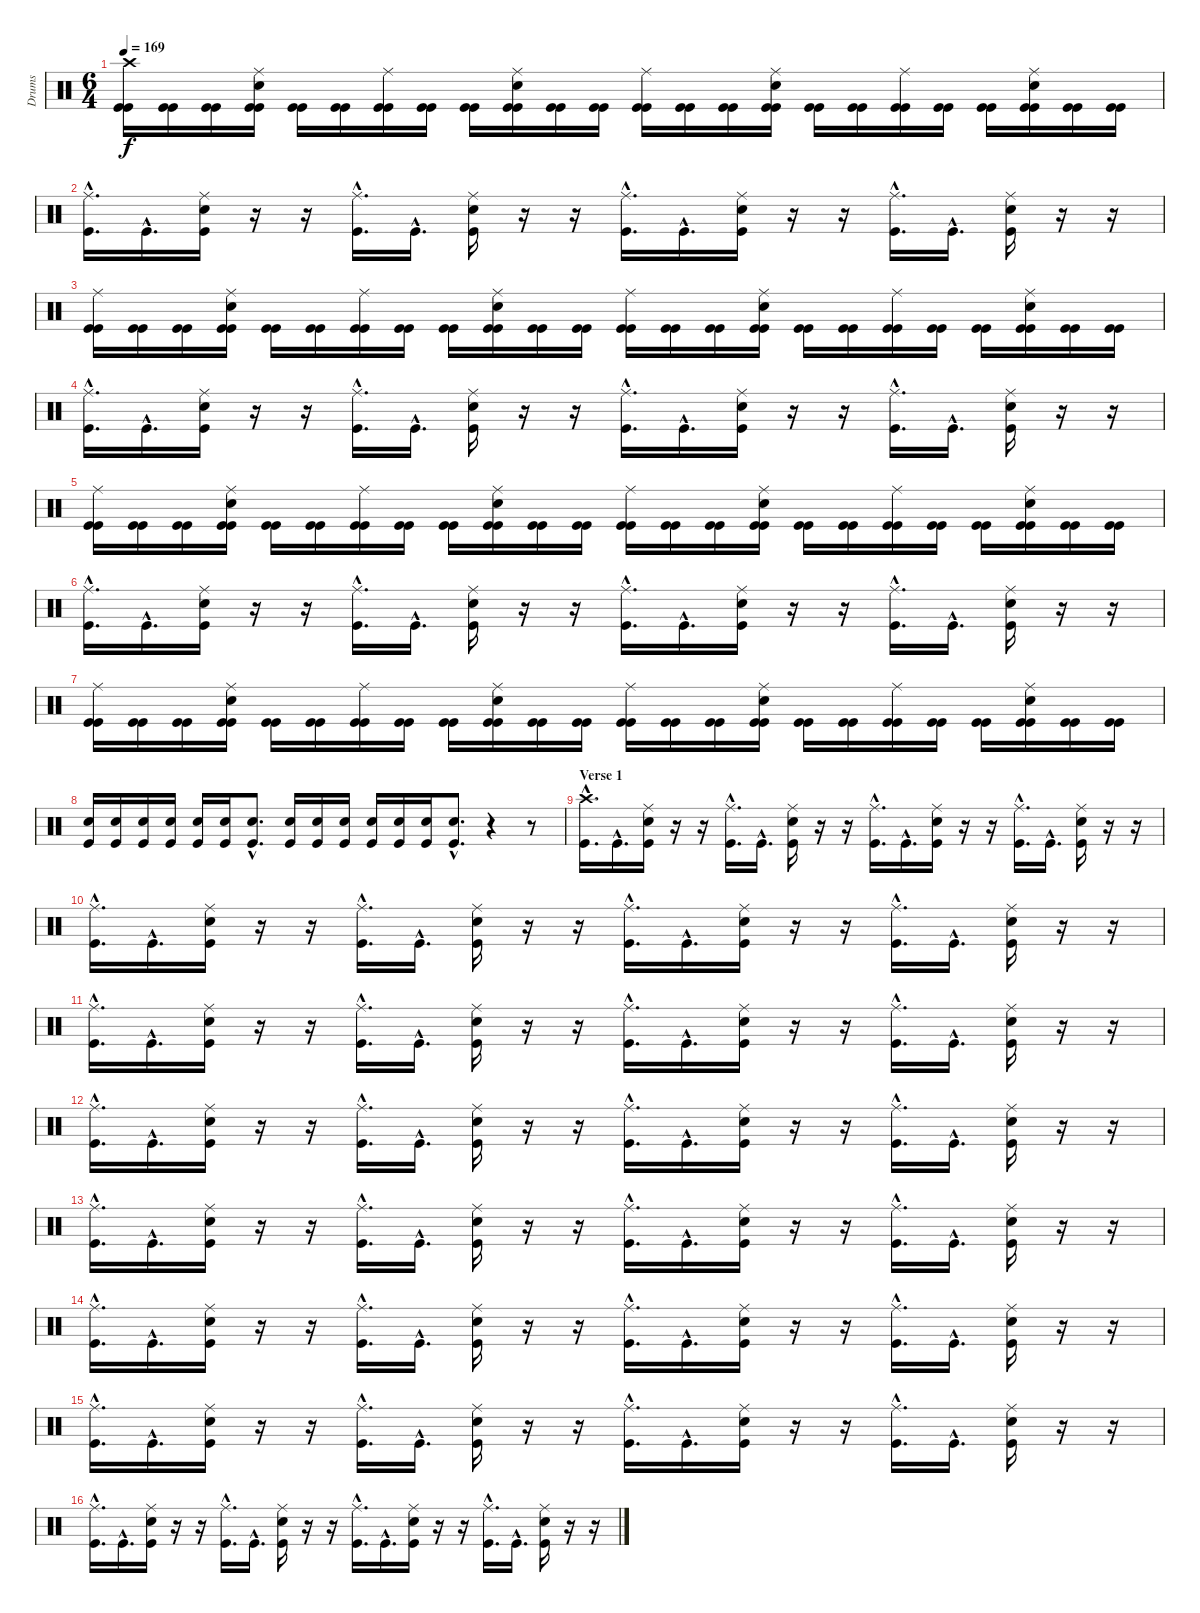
\track ("Drums" "Drums") {instrument percussion}
\staff {score}
\articulation defaults
\ts (6 4)
\tempo 169
\clef neutral
\ks c
("Kick (hit)" "Crash high (hit)" "Kick (hit)").16{dy f} ("Kick (hit)" "Kick (hit)").16 ("Kick (hit)" "Kick (hit)").16 ("Kick (hit)" "Electric Snare (hit)" "Ride (middle)" "Kick (hit)").16 ("Kick (hit)" "Kick (hit)").16 ("Kick (hit)" "Kick (hit)").16 ("Kick (hit)" "Ride (middle)" "Kick (hit)").16 ("Kick (hit)" "Kick (hit)").16 ("Kick (hit)" "Kick (hit)").16 ("Kick (hit)" "Electric Snare (hit)" "Ride (middle)" "Kick (hit)").16 ("Kick (hit)" "Kick (hit)").16 ("Kick (hit)" "Kick (hit)").16 ("Kick (hit)" "Ride (middle)" "Kick (hit)").16 ("Kick (hit)" "Kick (hit)").16 ("Kick (hit)" "Kick (hit)").16 ("Kick (hit)" "Electric Snare (hit)" "Ride (middle)" "Kick (hit)").16 ("Kick (hit)" "Kick (hit)").16 ("Kick (hit)" "Kick (hit)").16 ("Kick (hit)" "Ride (middle)" "Kick (hit)").16 ("Kick (hit)" "Kick (hit)").16 ("Kick (hit)" "Kick (hit)").16 ("Kick (hit)" "Electric Snare (hit)" "Ride (middle)" "Kick (hit)").16 ("Kick (hit)" "Kick (hit)").16 ("Kick (hit)" "Kick (hit)").16 |
("Kick (hit)"{hac} "Ride (middle)"{hac}).16{d} "Kick (hit)"{hac}.16{d} ("Kick (hit)" "Electric Snare (hit)" "Ride (middle)").16 r.16 r.16 ("Kick (hit)"{hac} "Ride (middle)"{hac}).16{d} "Kick (hit)"{hac}.16{d} ("Kick (hit)" "Electric Snare (hit)" "Ride (middle)").16 r.16 r.16 ("Kick (hit)"{hac} "Ride (middle)"{hac}).16{d} "Kick (hit)"{hac}.16{d} ("Kick (hit)" "Electric Snare (hit)" "Ride (middle)").16 r.16 r.16 ("Kick (hit)"{hac} "Ride (middle)"{hac}).16{d} "Kick (hit)"{hac}.16{d} ("Kick (hit)" "Electric Snare (hit)" "Ride (middle)").16 r.16 r.16 |
("Kick (hit)" "Ride (middle)" "Kick (hit)").16 ("Kick (hit)" "Kick (hit)").16 ("Kick (hit)" "Kick (hit)").16 ("Kick (hit)" "Electric Snare (hit)" "Ride (middle)" "Kick (hit)").16 ("Kick (hit)" "Kick (hit)").16 ("Kick (hit)" "Kick (hit)").16 ("Kick (hit)" "Ride (middle)" "Kick (hit)").16 ("Kick (hit)" "Kick (hit)").16 ("Kick (hit)" "Kick (hit)").16 ("Kick (hit)" "Electric Snare (hit)" "Ride (middle)" "Kick (hit)").16 ("Kick (hit)" "Kick (hit)").16 ("Kick (hit)" "Kick (hit)").16 ("Kick (hit)" "Ride (middle)" "Kick (hit)").16 ("Kick (hit)" "Kick (hit)").16 ("Kick (hit)" "Kick (hit)").16 ("Kick (hit)" "Electric Snare (hit)" "Ride (middle)" "Kick (hit)").16 ("Kick (hit)" "Kick (hit)").16 ("Kick (hit)" "Kick (hit)").16 ("Kick (hit)" "Ride (middle)" "Kick (hit)").16 ("Kick (hit)" "Kick (hit)").16 ("Kick (hit)" "Kick (hit)").16 ("Kick (hit)" "Electric Snare (hit)" "Ride (middle)" "Kick (hit)").16 ("Kick (hit)" "Kick (hit)").16 ("Kick (hit)" "Kick (hit)").16 |
("Kick (hit)"{hac} "Ride (middle)"{hac}).16{d} "Kick (hit)"{hac}.16{d} ("Kick (hit)" "Electric Snare (hit)" "Ride (middle)").16 r.16 r.16 ("Kick (hit)"{hac} "Ride (middle)"{hac}).16{d} "Kick (hit)"{hac}.16{d} ("Kick (hit)" "Electric Snare (hit)" "Ride (middle)").16 r.16 r.16 ("Kick (hit)"{hac} "Ride (middle)"{hac}).16{d} "Kick (hit)"{hac}.16{d} ("Kick (hit)" "Electric Snare (hit)" "Ride (middle)").16 r.16 r.16 ("Kick (hit)"{hac} "Ride (middle)"{hac}).16{d} "Kick (hit)"{hac}.16{d} ("Kick (hit)" "Electric Snare (hit)" "Ride (middle)").16 r.16 r.16 |
("Kick (hit)" "Ride (middle)" "Kick (hit)").16 ("Kick (hit)" "Kick (hit)").16 ("Kick (hit)" "Kick (hit)").16 ("Kick (hit)" "Electric Snare (hit)" "Ride (middle)" "Kick (hit)").16 ("Kick (hit)" "Kick (hit)").16 ("Kick (hit)" "Kick (hit)").16 ("Kick (hit)" "Ride (middle)" "Kick (hit)").16 ("Kick (hit)" "Kick (hit)").16 ("Kick (hit)" "Kick (hit)").16 ("Kick (hit)" "Electric Snare (hit)" "Ride (middle)" "Kick (hit)").16 ("Kick (hit)" "Kick (hit)").16 ("Kick (hit)" "Kick (hit)").16 ("Kick (hit)" "Ride (middle)" "Kick (hit)").16 ("Kick (hit)" "Kick (hit)").16 ("Kick (hit)" "Kick (hit)").16 ("Kick (hit)" "Electric Snare (hit)" "Ride (middle)" "Kick (hit)").16 ("Kick (hit)" "Kick (hit)").16 ("Kick (hit)" "Kick (hit)").16 ("Kick (hit)" "Ride (middle)" "Kick (hit)").16 ("Kick (hit)" "Kick (hit)").16 ("Kick (hit)" "Kick (hit)").16 ("Kick (hit)" "Electric Snare (hit)" "Ride (middle)" "Kick (hit)").16 ("Kick (hit)" "Kick (hit)").16 ("Kick (hit)" "Kick (hit)").16 |
("Kick (hit)"{hac} "Ride (middle)"{hac}).16{d} "Kick (hit)"{hac}.16{d} ("Kick (hit)" "Electric Snare (hit)" "Ride (middle)").16 r.16 r.16 ("Kick (hit)"{hac} "Ride (middle)"{hac}).16{d} "Kick (hit)"{hac}.16{d} ("Kick (hit)" "Electric Snare (hit)" "Ride (middle)").16 r.16 r.16 ("Kick (hit)"{hac} "Ride (middle)"{hac}).16{d} "Kick (hit)"{hac}.16{d} ("Kick (hit)" "Electric Snare (hit)" "Ride (middle)").16 r.16 r.16 ("Kick (hit)"{hac} "Ride (middle)"{hac}).16{d} "Kick (hit)"{hac}.16{d} ("Kick (hit)" "Electric Snare (hit)" "Ride (middle)").16 r.16 r.16 |
("Kick (hit)" "Ride (middle)" "Kick (hit)").16 ("Kick (hit)" "Kick (hit)").16 ("Kick (hit)" "Kick (hit)").16 ("Kick (hit)" "Electric Snare (hit)" "Ride (middle)" "Kick (hit)").16 ("Kick (hit)" "Kick (hit)").16 ("Kick (hit)" "Kick (hit)").16 ("Kick (hit)" "Ride (middle)" "Kick (hit)").16 ("Kick (hit)" "Kick (hit)").16 ("Kick (hit)" "Kick (hit)").16 ("Kick (hit)" "Electric Snare (hit)" "Ride (middle)" "Kick (hit)").16 ("Kick (hit)" "Kick (hit)").16 ("Kick (hit)" "Kick (hit)").16 ("Kick (hit)" "Ride (middle)" "Kick (hit)").16 ("Kick (hit)" "Kick (hit)").16 ("Kick (hit)" "Kick (hit)").16 ("Kick (hit)" "Electric Snare (hit)" "Ride (middle)" "Kick (hit)").16 ("Kick (hit)" "Kick (hit)").16 ("Kick (hit)" "Kick (hit)").16 ("Kick (hit)" "Ride (middle)" "Kick (hit)").16 ("Kick (hit)" "Kick (hit)").16 ("Kick (hit)" "Kick (hit)").16 ("Kick (hit)" "Electric Snare (hit)" "Ride (middle)" "Kick (hit)").16 ("Kick (hit)" "Kick (hit)").16 ("Kick (hit)" "Kick (hit)").16 |
("Kick (hit)" "Electric Snare (hit)").16 ("Kick (hit)" "Electric Snare (hit)").16 ("Kick (hit)" "Electric Snare (hit)").16 ("Kick (hit)" "Electric Snare (hit)").16 ("Kick (hit)" "Electric Snare (hit)").16 ("Kick (hit)" "Electric Snare (hit)").16 ("Kick (hit)"{hac} "Electric Snare (hit)"{hac}).8{d} ("Kick (hit)" "Electric Snare (hit)").16 ("Kick (hit)" "Electric Snare (hit)").16 ("Kick (hit)" "Electric Snare (hit)").16 ("Kick (hit)" "Electric Snare (hit)").16 ("Kick (hit)" "Electric Snare (hit)").16 ("Kick (hit)" "Electric Snare (hit)").16 ("Kick (hit)"{hac} "Electric Snare (hit)"{hac}).8{d} r.4 r.8 |
\section ("" "Verse 1")
("Kick (hit)"{hac} "Crash high (hit)"{hac}).16{d} "Kick (hit)"{hac}.16{d} ("Kick (hit)" "Electric Snare (hit)" "Ride (middle)").16 r.16 r.16 ("Kick (hit)"{hac} "Ride (middle)"{hac}).16{d} "Kick (hit)"{hac}.16{d} ("Kick (hit)" "Electric Snare (hit)" "Ride (middle)").16 r.16 r.16 ("Kick (hit)"{hac} "Ride (middle)"{hac}).16{d} "Kick (hit)"{hac}.16{d} ("Kick (hit)" "Electric Snare (hit)" "Ride (middle)").16 r.16 r.16 ("Kick (hit)"{hac} "Ride (middle)"{hac}).16{d} "Kick (hit)"{hac}.16{d} ("Kick (hit)" "Electric Snare (hit)" "Ride (middle)").16 r.16 r.16 |
("Kick (hit)"{hac} "Ride (middle)"{hac}).16{d} "Kick (hit)"{hac}.16{d} ("Kick (hit)" "Electric Snare (hit)" "Ride (middle)").16 r.16 r.16 ("Kick (hit)"{hac} "Ride (middle)"{hac}).16{d} "Kick (hit)"{hac}.16{d} ("Kick (hit)" "Electric Snare (hit)" "Ride (middle)").16 r.16 r.16 ("Kick (hit)"{hac} "Ride (middle)"{hac}).16{d} "Kick (hit)"{hac}.16{d} ("Kick (hit)" "Electric Snare (hit)" "Ride (middle)").16 r.16 r.16 ("Kick (hit)"{hac} "Ride (middle)"{hac}).16{d} "Kick (hit)"{hac}.16{d} ("Kick (hit)" "Electric Snare (hit)" "Ride (middle)").16 r.16 r.16 |
("Kick (hit)"{hac} "Ride (middle)"{hac}).16{d} "Kick (hit)"{hac}.16{d} ("Kick (hit)" "Electric Snare (hit)" "Ride (middle)").16 r.16 r.16 ("Kick (hit)"{hac} "Ride (middle)"{hac}).16{d} "Kick (hit)"{hac}.16{d} ("Kick (hit)" "Electric Snare (hit)" "Ride (middle)").16 r.16 r.16 ("Kick (hit)"{hac} "Ride (middle)"{hac}).16{d} "Kick (hit)"{hac}.16{d} ("Kick (hit)" "Electric Snare (hit)" "Ride (middle)").16 r.16 r.16 ("Kick (hit)"{hac} "Ride (middle)"{hac}).16{d} "Kick (hit)"{hac}.16{d} ("Kick (hit)" "Electric Snare (hit)" "Ride (middle)").16 r.16 r.16 |
("Kick (hit)"{hac} "Ride (middle)"{hac}).16{d} "Kick (hit)"{hac}.16{d} ("Kick (hit)" "Electric Snare (hit)" "Ride (middle)").16 r.16 r.16 ("Kick (hit)"{hac} "Ride (middle)"{hac}).16{d} "Kick (hit)"{hac}.16{d} ("Kick (hit)" "Electric Snare (hit)" "Ride (middle)").16 r.16 r.16 ("Kick (hit)"{hac} "Ride (middle)"{hac}).16{d} "Kick (hit)"{hac}.16{d} ("Kick (hit)" "Electric Snare (hit)" "Ride (middle)").16 r.16 r.16 ("Kick (hit)"{hac} "Ride (middle)"{hac}).16{d} "Kick (hit)"{hac}.16{d} ("Kick (hit)" "Electric Snare (hit)" "Ride (middle)").16 r.16 r.16 |
("Kick (hit)"{hac} "Ride (middle)"{hac}).16{d} "Kick (hit)"{hac}.16{d} ("Kick (hit)" "Electric Snare (hit)" "Ride (middle)").16 r.16 r.16 ("Kick (hit)"{hac} "Ride (middle)"{hac}).16{d} "Kick (hit)"{hac}.16{d} ("Kick (hit)" "Electric Snare (hit)" "Ride (middle)").16 r.16 r.16 ("Kick (hit)"{hac} "Ride (middle)"{hac}).16{d} "Kick (hit)"{hac}.16{d} ("Kick (hit)" "Electric Snare (hit)" "Ride (middle)").16 r.16 r.16 ("Kick (hit)"{hac} "Ride (middle)"{hac}).16{d} "Kick (hit)"{hac}.16{d} ("Kick (hit)" "Electric Snare (hit)" "Ride (middle)").16 r.16 r.16 |
("Kick (hit)"{hac} "Ride (middle)"{hac}).16{d} "Kick (hit)"{hac}.16{d} ("Kick (hit)" "Electric Snare (hit)" "Ride (middle)").16 r.16 r.16 ("Kick (hit)"{hac} "Ride (middle)"{hac}).16{d} "Kick (hit)"{hac}.16{d} ("Kick (hit)" "Electric Snare (hit)" "Ride (middle)").16 r.16 r.16 ("Kick (hit)"{hac} "Ride (middle)"{hac}).16{d} "Kick (hit)"{hac}.16{d} ("Kick (hit)" "Electric Snare (hit)" "Ride (middle)").16 r.16 r.16 ("Kick (hit)"{hac} "Ride (middle)"{hac}).16{d} "Kick (hit)"{hac}.16{d} ("Kick (hit)" "Electric Snare (hit)" "Ride (middle)").16 r.16 r.16 |
("Kick (hit)"{hac} "Ride (middle)"{hac}).16{d} "Kick (hit)"{hac}.16{d} ("Kick (hit)" "Electric Snare (hit)" "Ride (middle)").16 r.16 r.16 ("Kick (hit)"{hac} "Ride (middle)"{hac}).16{d} "Kick (hit)"{hac}.16{d} ("Kick (hit)" "Electric Snare (hit)" "Ride (middle)").16 r.16 r.16 ("Kick (hit)"{hac} "Ride (middle)"{hac}).16{d} "Kick (hit)"{hac}.16{d} ("Kick (hit)" "Electric Snare (hit)" "Ride (middle)").16 r.16 r.16 ("Kick (hit)"{hac} "Ride (middle)"{hac}).16{d} "Kick (hit)"{hac}.16{d} ("Kick (hit)" "Electric Snare (hit)" "Ride (middle)").16 r.16 r.16 |
("Kick (hit)"{hac} "Ride (middle)"{hac}).16{d} "Kick (hit)"{hac}.16{d} ("Kick (hit)" "Electric Snare (hit)" "Ride (middle)").16 r.16 r.16 ("Kick (hit)"{hac} "Ride (middle)"{hac}).16{d} "Kick (hit)"{hac}.16{d} ("Kick (hit)" "Electric Snare (hit)" "Ride (middle)").16 r.16 r.16 ("Kick (hit)"{hac} "Ride (middle)"{hac}).16{d} "Kick (hit)"{hac}.16{d} ("Kick (hit)" "Electric Snare (hit)" "Ride (middle)").16 r.16 r.16 ("Kick (hit)"{hac} "Ride (middle)"{hac}).16{d} "Kick (hit)"{hac}.16{d} ("Kick (hit)" "Electric Snare (hit)" "Ride (middle)").16 r.16 r.16
